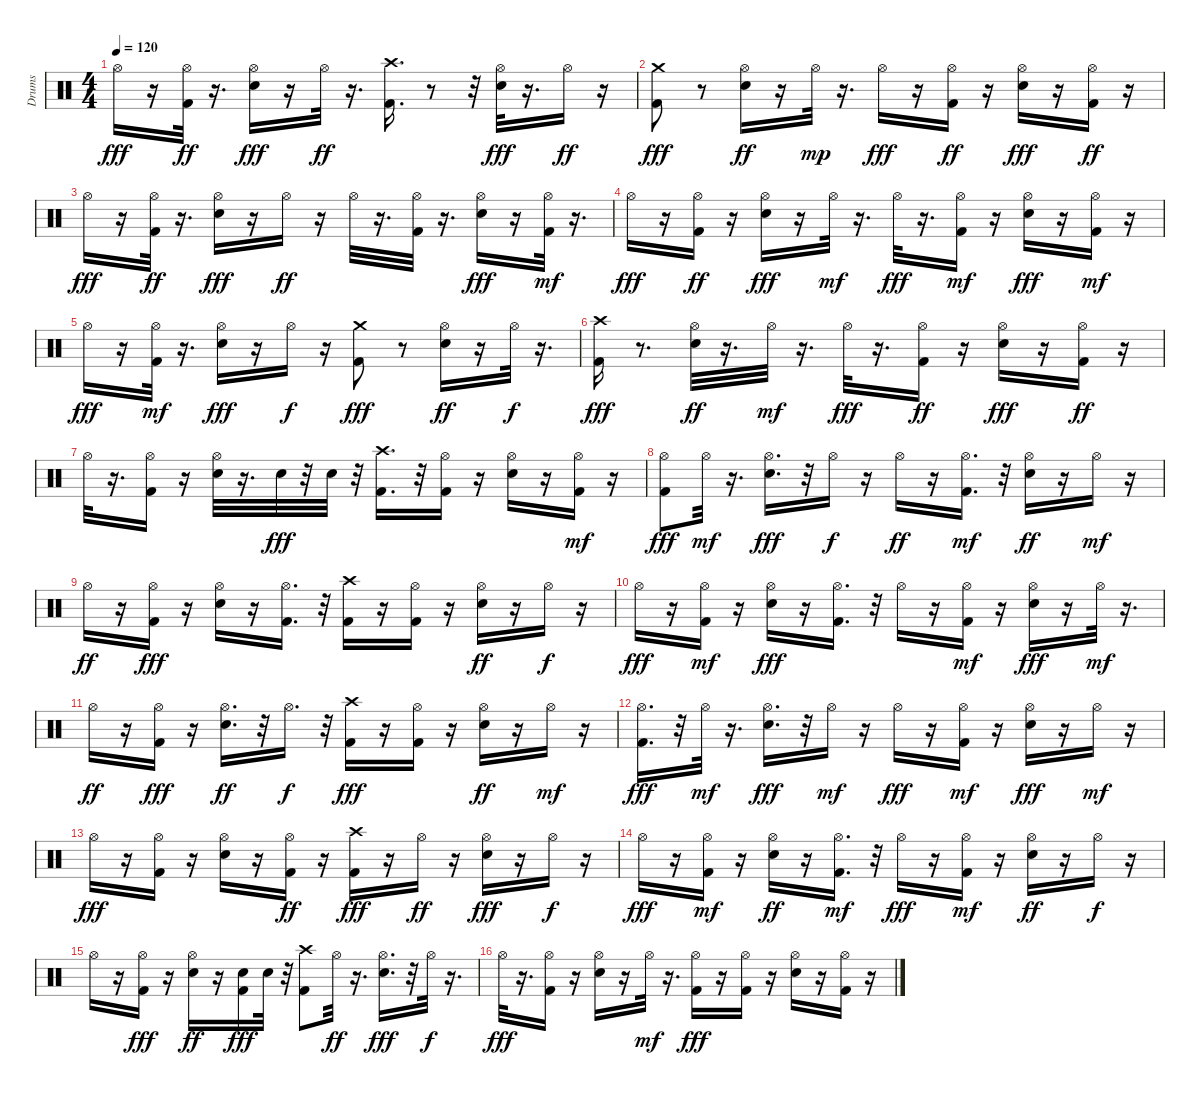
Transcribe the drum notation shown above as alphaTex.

\track ("Drums" "Drums") {instrument percussion}
\staff {score}
\articulation defaults
\ts (4 4)
\tempo 120
\clef neutral
\ks c "Hi-Hat (open)".16{dy fff}
r.16 ("Kick (hit) 2" "Hi-Hat (open)").32{dy ff} r.16{d} ("Electric Snare (hit)" "Hi-Hat (open)").16{dy fff} r.16 "Hi-Hat (open)".32{dy ff} r.16{d} ("Kick (hit) 2" "Crash high (hit)").16{d} r.8 r.32 ("Electric Snare (hit)" "Hi-Hat (open)").32{dy fff} r.16{d} "Hi-Hat (open)".16{dy ff} r.16 |
("Kick (hit) 2" "Crash medium (hit)").8{dy fff} r.8 ("Electric Snare (hit)" "Hi-Hat (open)").16{dy ff} r.16 "Hi-Hat (open)".32{dy mp} r.16{d} "Hi-Hat (open)".16{dy fff} r.16 ("Kick (hit) 2" "Hi-Hat (open)").16{dy ff} r.16 ("Electric Snare (hit)" "Hi-Hat (open)").16{dy fff} r.16 ("Kick (hit) 2" "Hi-Hat (open)").16{dy ff} r.16 |
"Hi-Hat (open)".16{dy fff} r.16 ("Kick (hit) 2" "Hi-Hat (open)").32{dy ff} r.16{d} ("Electric Snare (hit)" "Hi-Hat (open)").16{dy fff} r.16 "Hi-Hat (open)".16{dy ff} r.16 "Hi-Hat (open)".32 r.16{d} ("Kick (hit) 2" "Hi-Hat (open)").32 r.16{d} ("Electric Snare (hit)" "Hi-Hat (open)").16{dy fff} r.16 ("Kick (hit) 2" "Hi-Hat (open)").32{dy mf} r.16{d} |
"Hi-Hat (open)".16{dy fff} r.16 ("Kick (hit) 2" "Hi-Hat (open)").16{dy ff} r.16 ("Electric Snare (hit)" "Hi-Hat (open)").16{dy fff} r.16 "Hi-Hat (open)".32{dy mf} r.16{d} "Hi-Hat (open)".32{dy fff} r.16{d} ("Kick (hit) 2" "Hi-Hat (open)").16{dy mf} r.16 ("Electric Snare (hit)" "Hi-Hat (open)").16{dy fff} r.16 ("Kick (hit) 2" "Hi-Hat (open)").16{dy mf} r.16 |
"Hi-Hat (open)".16{dy fff} r.16 ("Kick (hit) 2" "Hi-Hat (open)").32{dy mf} r.16{d} ("Electric Snare (hit)" "Hi-Hat (open)").16{dy fff} r.16 "Hi-Hat (open)".16{dy f} r.16 ("Kick (hit) 2" "Crash medium (hit)").8{dy fff} r.8 ("Electric Snare (hit)" "Hi-Hat (open)").16{dy ff} r.16 "Hi-Hat (open)".32{dy f} r.16{d} |
("Kick (hit) 2" "Crash high (hit)").16{dy fff} r.8{d} ("Electric Snare (hit)" "Hi-Hat (open)").32{dy ff} r.16{d} "Hi-Hat (open)".32{dy mf} r.16{d} "Hi-Hat (open)".32{dy fff} r.16{d} ("Kick (hit) 2" "Hi-Hat (open)").16{dy ff} r.16 ("Electric Snare (hit)" "Hi-Hat (open)").16{dy fff} r.16 ("Kick (hit) 2" "Hi-Hat (open)").16{dy ff} r.16 |
"Hi-Hat (open)".32 r.16{d} ("Kick (hit) 2" "Hi-Hat (open)").16 r.16 ("Electric Snare (hit)" "Hi-Hat (open)").32 r.16{d} "Electric Snare (hit)".32{dy fff} r.32 "Electric Snare (hit)".32 r.32 ("Kick (hit) 2" "Crash high (hit)").16{d} r.32 ("Kick (hit) 2" "Hi-Hat (open)").16 r.16 ("Electric Snare (hit)" "Hi-Hat (open)").16 r.16 ("Kick (hit) 2" "Hi-Hat (open)").16{dy mf} r.16 |
("Kick (hit) 2" "Hi-Hat (open)").8{dy fff} "Hi-Hat (open)".32{dy mf} r.16{d} ("Electric Snare (hit)" "Hi-Hat (open)").16{d dy fff} r.32 "Hi-Hat (open)".16{dy f} r.16 "Hi-Hat (open)".16{dy ff} r.16 ("Kick (hit) 2" "Hi-Hat (open)").16{d dy mf} r.32 ("Electric Snare (hit)" "Hi-Hat (open)").16{dy ff} r.16 "Hi-Hat (open)".16{dy mf} r.16 |
"Hi-Hat (open)".16{dy ff} r.16 ("Kick (hit) 2" "Hi-Hat (open)").16{dy fff} r.16 ("Electric Snare (hit)" "Hi-Hat (open)").16 r.16 ("Kick (hit) 2" "Hi-Hat (open)").16{d} r.32 ("Kick (hit) 2" "Crash high (hit)").16 r.16 ("Kick (hit) 2" "Hi-Hat (open)").16 r.16 ("Electric Snare (hit)" "Hi-Hat (open)").16{dy ff} r.16 "Hi-Hat (open)".16{dy f} r.16 |
"Hi-Hat (open)".16{dy fff} r.16 ("Kick (hit) 2" "Hi-Hat (open)").16{dy mf} r.16 ("Electric Snare (hit)" "Hi-Hat (open)").16{dy fff} r.16 ("Kick (hit) 2" "Hi-Hat (open)").16{d} r.32 "Hi-Hat (open)".16 r.16 ("Kick (hit) 2" "Hi-Hat (open)").16{dy mf} r.16 ("Electric Snare (hit)" "Hi-Hat (open)").16{dy fff} r.16 "Hi-Hat (open)".32{dy mf} r.16{d} |
"Hi-Hat (open)".16{dy ff} r.16 ("Kick (hit) 2" "Hi-Hat (open)").16{dy fff} r.16 ("Electric Snare (hit)" "Hi-Hat (open)").16{d dy ff} r.32 "Hi-Hat (open)".16{d dy f} r.32 ("Kick (hit) 2" "Crash high (hit)").16{dy fff} r.16 ("Kick (hit) 2" "Hi-Hat (open)").16 r.16 ("Electric Snare (hit)" "Hi-Hat (open)").16{dy ff} r.16 "Hi-Hat (open)".16{dy mf} r.16 |
("Kick (hit) 2" "Hi-Hat (open)").16{d dy fff} r.32 "Hi-Hat (open)".32{dy mf} r.16{d} ("Electric Snare (hit)" "Hi-Hat (open)").16{d dy fff} r.32 "Hi-Hat (open)".16{dy mf} r.16 "Hi-Hat (open)".16{dy fff} r.16 ("Kick (hit) 2" "Hi-Hat (open)").16{dy mf} r.16 ("Electric Snare (hit)" "Hi-Hat (open)").16{dy fff} r.16 "Hi-Hat (open)".16{dy mf} r.16 |
"Hi-Hat (open)".16{dy fff} r.16 ("Kick (hit) 2" "Hi-Hat (open)").16 r.16 ("Electric Snare (hit)" "Hi-Hat (open)").16 r.16 ("Kick (hit) 2" "Hi-Hat (open)").16{dy ff} r.16 ("Kick (hit) 2" "Crash high (hit)").16{dy fff} r.16 "Hi-Hat (open)".16{dy ff} r.16 ("Electric Snare (hit)" "Hi-Hat (open)").16{dy fff} r.16 "Hi-Hat (open)".16{dy f} r.16 |
"Hi-Hat (open)".16{dy fff} r.16 ("Kick (hit) 2" "Hi-Hat (open)").16{dy mf} r.16 ("Electric Snare (hit)" "Hi-Hat (open)").16{dy ff} r.16 ("Kick (hit) 2" "Hi-Hat (open)").16{d dy mf} r.32 "Hi-Hat (open)".16{dy fff} r.16 ("Kick (hit) 2" "Hi-Hat (open)").16{dy mf} r.16 ("Electric Snare (hit)" "Hi-Hat (open)").16{dy ff} r.16 "Hi-Hat (open)".16{dy f} r.16 |
"Hi-Hat (open)".16 r.16 ("Kick (hit) 2" "Hi-Hat (open)").16{dy fff} r.16 ("Electric Snare (hit)" "Hi-Hat (open)").16{dy ff} r.16 ("Kick (hit) 2" "Electric Snare (hit)").16{dy fff} "Electric Snare (hit)".32 r.32 ("Crash high (hit)" "Kick (hit) 2").8 "Hi-Hat (open)".32{dy ff} r.16{d} ("Hi-Hat (open)" "Electric Snare (hit)").16{d dy fff} r.32 "Hi-Hat (open)".32{dy f} r.16{d} |
"Hi-Hat (open)".32{dy fff} r.16{d} ("Hi-Hat (open)" "Kick (hit) 2").16 r.16 ("Hi-Hat (open)" "Electric Snare (hit)").16 r.16 "Hi-Hat (open)".32{dy mf} r.16{d} ("Hi-Hat (open)" "Kick (hit) 2").16{dy fff} r.16 ("Hi-Hat (open)" "Kick (hit) 2").16 r.16 ("Hi-Hat (open)" "Electric Snare (hit)").16 r.16 ("Hi-Hat (open)" "Kick (hit) 2").16 r.16
